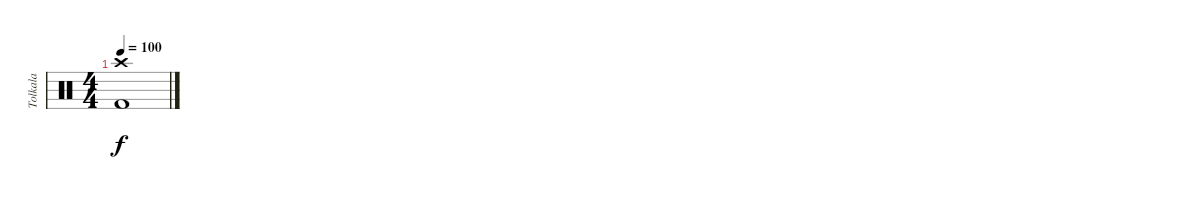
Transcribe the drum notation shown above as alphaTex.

\track ("Tolkala" "Tolkala") {instrument percussion}
\staff {score}
\articulation defaults
\ts (4 4)
\tempo 100
\clef neutral
\ks c
("Crash high (hit)" "Kick (hit) 2").1{dy f}
